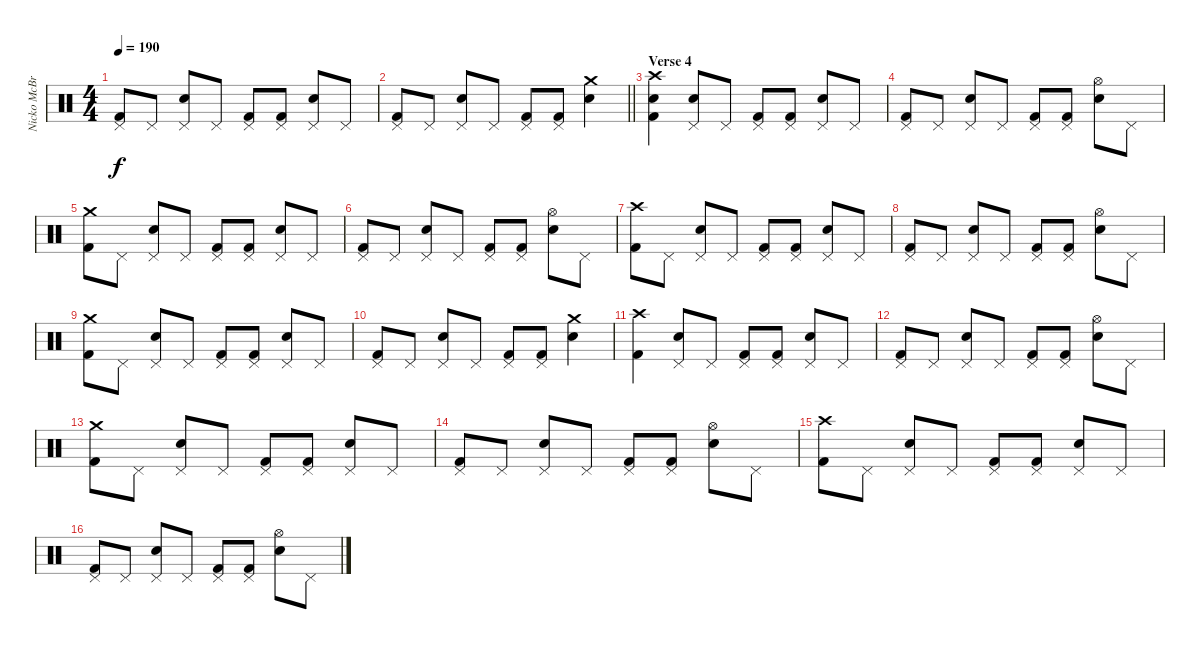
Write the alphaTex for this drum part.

\track ("Nicko McBrain" "Nicko McBr") {instrument percussion}
\staff {score}
\articulation defaults
\ts (4 4)
\tempo 190
\clef neutral
\ks c
("Pedal Hi-Hat (hit)" "Kick (hit) 2").8{dy f} "Pedal Hi-Hat (hit)".8 ("Pedal Hi-Hat (hit)" "Electric Snare (hit)").8 "Pedal Hi-Hat (hit)".8 ("Pedal Hi-Hat (hit)" "Kick (hit) 2").8 ("Pedal Hi-Hat (hit)" "Kick (hit) 2").8 ("Pedal Hi-Hat (hit)" "Electric Snare (hit)").8 "Pedal Hi-Hat (hit)".8 |
\barLineRight lightlight
("Pedal Hi-Hat (hit)" "Kick (hit) 2").8 "Pedal Hi-Hat (hit)".8 ("Pedal Hi-Hat (hit)" "Electric Snare (hit)").8 "Pedal Hi-Hat (hit)".8 ("Pedal Hi-Hat (hit)" "Kick (hit) 2").8 ("Pedal Hi-Hat (hit)" "Kick (hit) 2").8 ("Crash medium (hit)" "Electric Snare (hit)").4 |
\section ("" "Verse 4")
("Crash high (hit)" "Electric Snare (hit)" "Kick (hit) 2").4 ("Pedal Hi-Hat (hit)" "Electric Snare (hit)").8 "Pedal Hi-Hat (hit)".8 ("Pedal Hi-Hat (hit)" "Kick (hit) 2").8 ("Pedal Hi-Hat (hit)" "Kick (hit) 2").8 ("Pedal Hi-Hat (hit)" "Electric Snare (hit)").8 "Pedal Hi-Hat (hit)".8 |
("Pedal Hi-Hat (hit)" "Kick (hit) 2").8 "Pedal Hi-Hat (hit)".8 ("Pedal Hi-Hat (hit)" "Electric Snare (hit)").8 "Pedal Hi-Hat (hit)".8 ("Pedal Hi-Hat (hit)" "Kick (hit) 2").8 ("Pedal Hi-Hat (hit)" "Kick (hit) 2").8 ("Hi-Hat (open)" "Electric Snare (hit)").8 "Pedal Hi-Hat (hit)".8 |
("Crash medium (hit)" "Kick (hit) 2").8 "Pedal Hi-Hat (hit)".8 ("Pedal Hi-Hat (hit)" "Electric Snare (hit)").8 "Pedal Hi-Hat (hit)".8 ("Pedal Hi-Hat (hit)" "Kick (hit) 2").8 ("Pedal Hi-Hat (hit)" "Kick (hit) 2").8 ("Pedal Hi-Hat (hit)" "Electric Snare (hit)").8 "Pedal Hi-Hat (hit)".8 |
("Pedal Hi-Hat (hit)" "Kick (hit) 2").8 "Pedal Hi-Hat (hit)".8 ("Pedal Hi-Hat (hit)" "Electric Snare (hit)").8 "Pedal Hi-Hat (hit)".8 ("Pedal Hi-Hat (hit)" "Kick (hit) 2").8 ("Pedal Hi-Hat (hit)" "Kick (hit) 2").8 ("Hi-Hat (open)" "Electric Snare (hit)").8 "Pedal Hi-Hat (hit)".8 |
("Crash high (hit)" "Kick (hit) 2").8 "Pedal Hi-Hat (hit)".8 ("Pedal Hi-Hat (hit)" "Electric Snare (hit)").8 "Pedal Hi-Hat (hit)".8 ("Pedal Hi-Hat (hit)" "Kick (hit) 2").8 ("Pedal Hi-Hat (hit)" "Kick (hit) 2").8 ("Pedal Hi-Hat (hit)" "Electric Snare (hit)").8 "Pedal Hi-Hat (hit)".8 |
("Pedal Hi-Hat (hit)" "Kick (hit) 2").8 "Pedal Hi-Hat (hit)".8 ("Pedal Hi-Hat (hit)" "Electric Snare (hit)").8 "Pedal Hi-Hat (hit)".8 ("Pedal Hi-Hat (hit)" "Kick (hit) 2").8 ("Pedal Hi-Hat (hit)" "Kick (hit) 2").8 ("Hi-Hat (open)" "Electric Snare (hit)").8 "Pedal Hi-Hat (hit)".8 |
("Crash medium (hit)" "Kick (hit) 2").8 "Pedal Hi-Hat (hit)".8 ("Pedal Hi-Hat (hit)" "Electric Snare (hit)").8 "Pedal Hi-Hat (hit)".8 ("Pedal Hi-Hat (hit)" "Kick (hit) 2").8 ("Pedal Hi-Hat (hit)" "Kick (hit) 2").8 ("Pedal Hi-Hat (hit)" "Electric Snare (hit)").8 "Pedal Hi-Hat (hit)".8 |
("Pedal Hi-Hat (hit)" "Kick (hit) 2").8 "Pedal Hi-Hat (hit)".8 ("Pedal Hi-Hat (hit)" "Electric Snare (hit)").8 "Pedal Hi-Hat (hit)".8 ("Pedal Hi-Hat (hit)" "Kick (hit) 2").8 ("Pedal Hi-Hat (hit)" "Kick (hit) 2").8 ("Crash medium (hit)" "Electric Snare (hit)").4 |
("Crash high (hit)" "Kick (hit) 2").4 ("Pedal Hi-Hat (hit)" "Electric Snare (hit)").8 "Pedal Hi-Hat (hit)".8 ("Pedal Hi-Hat (hit)" "Kick (hit) 2").8 ("Pedal Hi-Hat (hit)" "Kick (hit) 2").8 ("Pedal Hi-Hat (hit)" "Electric Snare (hit)").8 "Pedal Hi-Hat (hit)".8 |
("Pedal Hi-Hat (hit)" "Kick (hit) 2").8 "Pedal Hi-Hat (hit)".8 ("Pedal Hi-Hat (hit)" "Electric Snare (hit)").8 "Pedal Hi-Hat (hit)".8 ("Pedal Hi-Hat (hit)" "Kick (hit) 2").8 ("Pedal Hi-Hat (hit)" "Kick (hit) 2").8 ("Hi-Hat (open)" "Electric Snare (hit)").8 "Pedal Hi-Hat (hit)".8 |
("Crash medium (hit)" "Kick (hit) 2").8 "Pedal Hi-Hat (hit)".8 ("Pedal Hi-Hat (hit)" "Electric Snare (hit)").8 "Pedal Hi-Hat (hit)".8 ("Pedal Hi-Hat (hit)" "Kick (hit) 2").8 ("Pedal Hi-Hat (hit)" "Kick (hit) 2").8 ("Pedal Hi-Hat (hit)" "Electric Snare (hit)").8 "Pedal Hi-Hat (hit)".8 |
("Pedal Hi-Hat (hit)" "Kick (hit) 2").8 "Pedal Hi-Hat (hit)".8 ("Pedal Hi-Hat (hit)" "Electric Snare (hit)").8 "Pedal Hi-Hat (hit)".8 ("Pedal Hi-Hat (hit)" "Kick (hit) 2").8 ("Pedal Hi-Hat (hit)" "Kick (hit) 2").8 ("Hi-Hat (open)" "Electric Snare (hit)").8 "Pedal Hi-Hat (hit)".8 |
("Crash high (hit)" "Kick (hit) 2").8 "Pedal Hi-Hat (hit)".8 ("Pedal Hi-Hat (hit)" "Electric Snare (hit)").8 "Pedal Hi-Hat (hit)".8 ("Pedal Hi-Hat (hit)" "Kick (hit) 2").8 ("Pedal Hi-Hat (hit)" "Kick (hit) 2").8 ("Pedal Hi-Hat (hit)" "Electric Snare (hit)").8 "Pedal Hi-Hat (hit)".8 |
("Pedal Hi-Hat (hit)" "Kick (hit) 2").8 "Pedal Hi-Hat (hit)".8 ("Pedal Hi-Hat (hit)" "Electric Snare (hit)").8 "Pedal Hi-Hat (hit)".8 ("Pedal Hi-Hat (hit)" "Kick (hit) 2").8 ("Pedal Hi-Hat (hit)" "Kick (hit) 2").8 ("Hi-Hat (open)" "Electric Snare (hit)").8 "Pedal Hi-Hat (hit)".8
